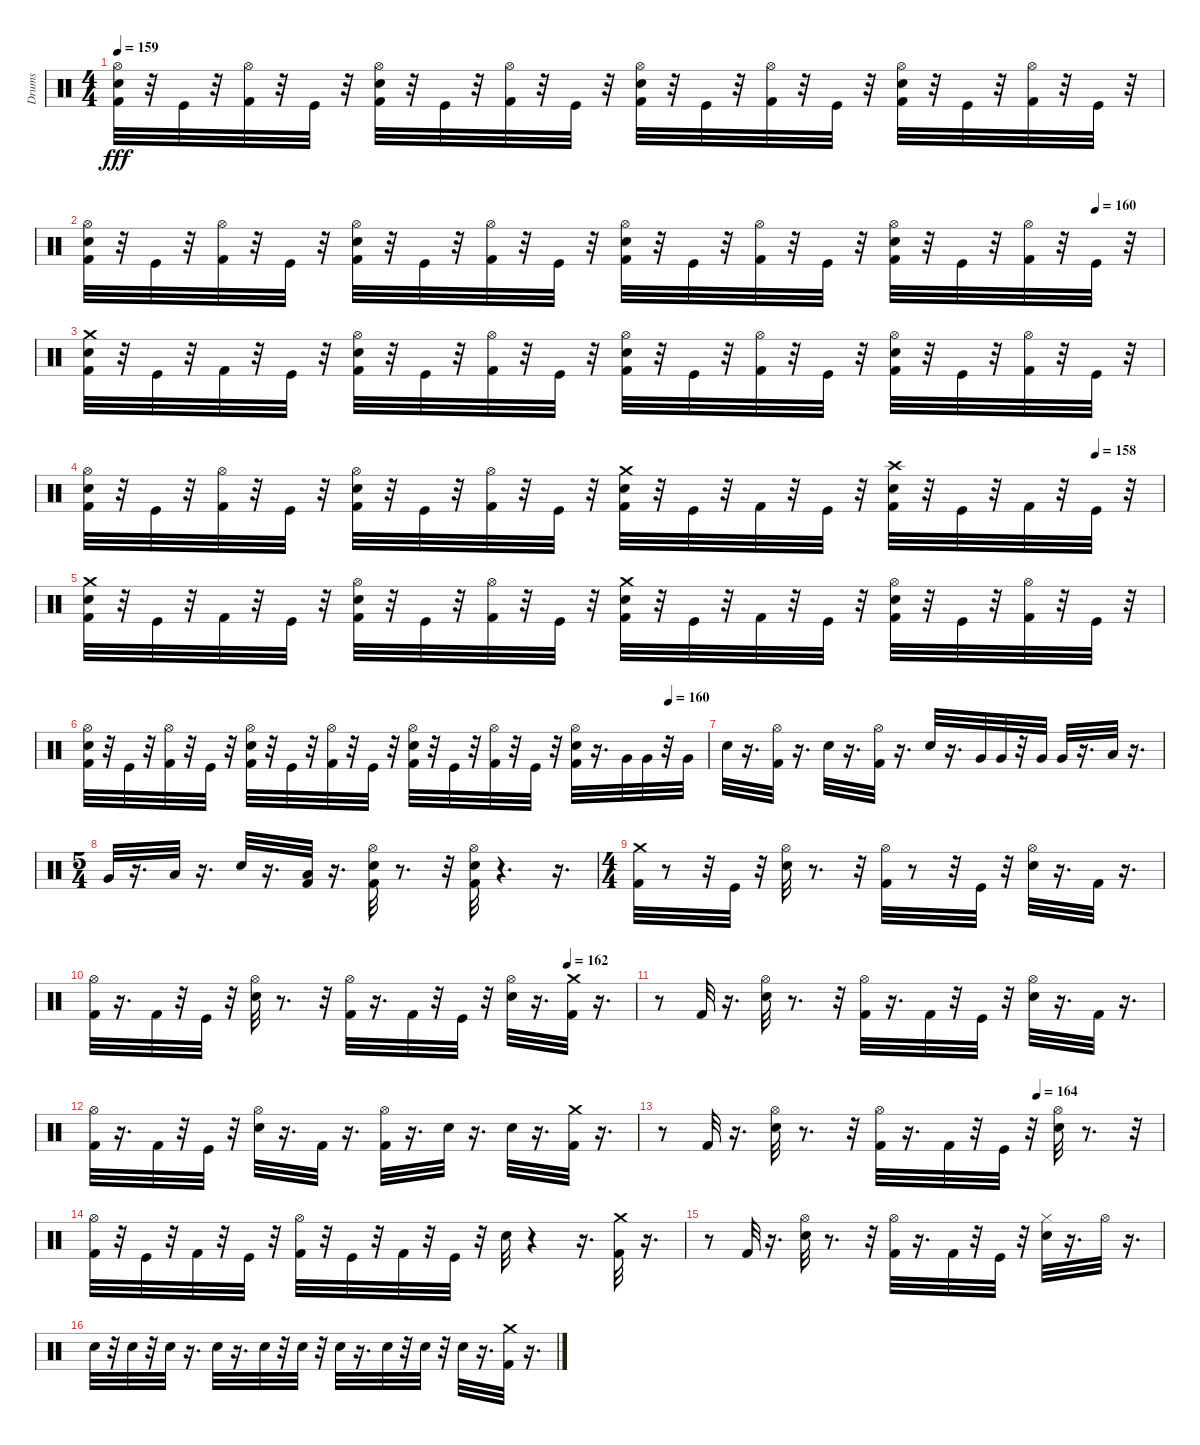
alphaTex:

\track ("Drums" "Drums") {instrument percussion}
\staff {score}
\articulation defaults
\ts (4 4)
\tempo 159
\clef neutral
\ks c
("Kick (hit) 2" "Snare (hit) 2" "Hi-Hat (open)").32{dy fff} r.32 "Kick (hit)".32 r.32 ("Kick (hit) 2" "Hi-Hat (open)").32 r.32 "Kick (hit)".32 r.32 ("Kick (hit) 2" "Snare (hit) 2" "Hi-Hat (open)").32 r.32 "Kick (hit)".32 r.32 ("Kick (hit) 2" "Hi-Hat (open)").32 r.32 "Kick (hit)".32 r.32 ("Kick (hit) 2" "Snare (hit) 2" "Hi-Hat (open)").32 r.32 "Kick (hit)".32 r.32 ("Kick (hit) 2" "Hi-Hat (open)").32 r.32 "Kick (hit)".32 r.32 ("Kick (hit) 2" "Snare (hit) 2" "Hi-Hat (open)").32 r.32 "Kick (hit)".32 r.32 ("Kick (hit) 2" "Hi-Hat (open)").32 r.32 "Kick (hit)".32 r.32 |
\tempo (160 0.9375)
("Kick (hit) 2" "Snare (hit) 2" "Hi-Hat (open)").32 r.32 "Kick (hit)".32 r.32 ("Kick (hit) 2" "Hi-Hat (open)").32 r.32 "Kick (hit)".32 r.32 ("Kick (hit) 2" "Snare (hit) 2" "Hi-Hat (open)").32 r.32 "Kick (hit)".32 r.32 ("Kick (hit) 2" "Hi-Hat (open)").32 r.32 "Kick (hit)".32 r.32 ("Kick (hit) 2" "Snare (hit) 2" "Hi-Hat (open)").32 r.32 "Kick (hit)".32 r.32 ("Kick (hit) 2" "Hi-Hat (open)").32 r.32 "Kick (hit)".32 r.32 ("Kick (hit) 2" "Snare (hit) 2" "Hi-Hat (open)").32 r.32 "Kick (hit)".32 r.32 ("Kick (hit) 2" "Hi-Hat (open)").32 r.32 "Kick (hit)".32 r.32 |
("Kick (hit) 2" "Snare (hit) 2" "Crash medium (hit)").32 r.32 "Kick (hit)".32 r.32 "Kick (hit) 2".32 r.32 "Kick (hit)".32 r.32 ("Kick (hit) 2" "Snare (hit) 2" "Hi-Hat (open)").32 r.32 "Kick (hit)".32 r.32 ("Kick (hit) 2" "Hi-Hat (open)").32 r.32 "Kick (hit)".32 r.32 ("Kick (hit) 2" "Snare (hit) 2" "Hi-Hat (open)").32 r.32 "Kick (hit)".32 r.32 ("Kick (hit) 2" "Hi-Hat (open)").32 r.32 "Kick (hit)".32 r.32 ("Kick (hit) 2" "Snare (hit) 2" "Hi-Hat (open)").32 r.32 "Kick (hit)".32 r.32 ("Kick (hit) 2" "Hi-Hat (open)").32 r.32 "Kick (hit)".32 r.32 |
\tempo (158 0.9375)
("Kick (hit) 2" "Snare (hit) 2" "Hi-Hat (open)").32 r.32 "Kick (hit)".32 r.32 ("Kick (hit) 2" "Hi-Hat (open)").32 r.32 "Kick (hit)".32 r.32 ("Kick (hit) 2" "Snare (hit) 2" "Hi-Hat (open)").32 r.32 "Kick (hit)".32 r.32 ("Kick (hit) 2" "Hi-Hat (open)").32 r.32 "Kick (hit)".32 r.32 ("Crash medium (hit)" "Kick (hit) 2" "Snare (hit) 2").32 r.32 "Kick (hit)".32 r.32 "Kick (hit) 2".32 r.32 "Kick (hit)".32 r.32 ("Crash high (hit)" "Kick (hit) 2" "Snare (hit) 2").32 r.32 "Kick (hit)".32 r.32 "Kick (hit) 2".32 r.32 "Kick (hit)".32 r.32 |
("Kick (hit) 2" "Snare (hit) 2" "Crash medium (hit)").32 r.32 "Kick (hit)".32 r.32 "Kick (hit) 2".32 r.32 "Kick (hit)".32 r.32 ("Kick (hit) 2" "Snare (hit) 2" "Hi-Hat (open)").32 r.32 "Kick (hit)".32 r.32 ("Kick (hit) 2" "Hi-Hat (open)").32 r.32 "Kick (hit)".32 r.32 ("Kick (hit) 2" "Snare (hit) 2" "Crash medium (hit)").32 r.32 "Kick (hit)".32 r.32 "Kick (hit) 2".32 r.32 "Kick (hit)".32 r.32 ("Kick (hit) 2" "Snare (hit) 2" "Hi-Hat (open)").32 r.32 "Kick (hit)".32 r.32 ("Kick (hit) 2" "Hi-Hat (open)").32 r.32 "Kick (hit)".32 r.32 |
\tempo (160 0.9375)
("Kick (hit) 2" "Snare (hit) 2" "Hi-Hat (open)").32 r.32 "Kick (hit)".32 r.32 ("Kick (hit) 2" "Hi-Hat (open)").32 r.32 "Kick (hit)".32 r.32 ("Kick (hit) 2" "Snare (hit) 2" "Hi-Hat (open)").32 r.32 "Kick (hit)".32 r.32 ("Kick (hit) 2" "Hi-Hat (open)").32 r.32 "Kick (hit)".32 r.32 ("Kick (hit) 2" "Snare (hit) 2" "Hi-Hat (open)").32 r.32 "Kick (hit)".32 r.32 ("Kick (hit) 2" "Hi-Hat (open)").32 r.32 "Kick (hit)".32 r.32 ("Kick (hit) 2" "Snare (hit) 2" "Hi-Hat (open)").32 r.16{d} "Very Low Tom (hit)".32 "Very Low Tom (hit)".32 r.32 "Very Low Tom (hit)".32 |
"Snare (hit) 2".32 r.16{d} ("Kick (hit) 2" "Hi-Hat (open)").32 r.16{d} "Snare (hit) 2".32 r.16{d} ("Kick (hit) 2" "Hi-Hat (open)").32 r.16{d} "Snare (hit) 2".32 r.16{d} "Very Low Tom (hit)".32 "Very Low Tom (hit)".32 r.32 "Very Low Tom (hit)".32 "Very Low Tom (hit)".32 r.16{d} "Low Floor Tom (hit)".32 r.16{d} |
\ts (5 4)
"Very Low Tom (hit)".32 r.16{d} "Low Floor Tom (hit)".32 r.16{d} "Snare (hit) 2".32 r.16{d} ("Kick (hit) 2" "Low Floor Tom (hit)").32 r.16{d} ("Snare (hit) 2" "Kick (hit) 2" "Hi-Hat (open)").32 r.8{d} r.32 ("Snare (hit) 2" "Kick (hit) 2" "Hi-Hat (open)").32 r.4{d} r.16{d} |
\ts (4 4)
("Kick (hit) 2" "Crash medium (hit)").32 r.8 r.32 "Kick (hit)".32 r.32 ("Snare (hit) 2" "Hi-Hat (open)").32 r.8{d} r.32 ("Kick (hit) 2" "Hi-Hat (open)").32 r.8 r.32 "Kick (hit)".32 r.32 ("Snare (hit) 2" "Hi-Hat (open)").32 r.16{d} "Kick (hit) 2".32 r.16{d} |
\tempo (162 0.875)
("Kick (hit) 2" "Hi-Hat (open)").32 r.16{d} "Kick (hit) 2".32 r.32 "Kick (hit)".32 r.32 ("Snare (hit) 2" "Hi-Hat (open)").32 r.8{d} r.32 ("Kick (hit) 2" "Hi-Hat (open)").32 r.16{d} "Kick (hit) 2".32 r.32 "Kick (hit)".32 r.32 ("Snare (hit) 2" "Hi-Hat (open)").32 r.16{d} ("Kick (hit) 2" "Crash medium (hit)").32 r.16{d} |
r.8 "Kick (hit) 2".32 r.16{d} ("Snare (hit) 2" "Hi-Hat (open)").32 r.8{d} r.32 ("Kick (hit) 2" "Hi-Hat (open)").32 r.16{d} "Kick (hit) 2".32 r.32 "Kick (hit)".32 r.32 ("Snare (hit) 2" "Hi-Hat (open)").32 r.16{d} "Kick (hit) 2".32 r.16{d} |
("Kick (hit) 2" "Hi-Hat (open)").32 r.16{d} "Kick (hit) 2".32 r.32 "Kick (hit)".32 r.32 ("Snare (hit) 2" "Hi-Hat (open)").32 r.16{d} "Kick (hit) 2".32 r.16{d} ("Kick (hit) 2" "Hi-Hat (open)").32 r.16{d} "Snare (hit) 2".32 r.16{d} "Snare (hit) 2".32 r.16{d} ("Kick (hit) 2" "Crash medium (hit)").32 r.16{d} |
\tempo (164 0.75)
r.8 "Kick (hit) 2".32 r.16{d} ("Snare (hit) 2" "Hi-Hat (open)").32 r.8{d} r.32 ("Kick (hit) 2" "Hi-Hat (open)").32 r.16{d} "Kick (hit) 2".32 r.32 "Kick (hit)".32 r.32 ("Snare (hit) 2" "Hi-Hat (open)").32 r.8{d} r.32 |
("Kick (hit) 2" "Hi-Hat (open)").32 r.32 "Kick (hit)".32 r.32 "Kick (hit) 2".32 r.32 "Kick (hit)".32 r.32 ("Kick (hit) 2" "Hi-Hat (open)").32 r.32 "Kick (hit)".32 r.32 "Kick (hit) 2".32 r.32 "Kick (hit)".32 r.32 "Snare (hit) 2".32 r.4 r.16{d} ("Crash medium (hit)" "Kick (hit) 2").32 r.16{d} |
r.8 "Kick (hit) 2".32 r.16{d} ("Snare (hit) 2" "Hi-Hat (open)").32 r.8{d} r.32 ("Kick (hit) 2" "Hi-Hat (open)").32 r.16{d} "Kick (hit) 2".32 r.32 "Kick (hit)".32 r.32 ("Snare (hit) 2" "Hi-Hat (closed)").32 r.16{d} "Hi-Hat (open)".32 r.16{d} |
"Snare (hit) 2".32 r.32 "Snare (hit) 2".32 r.32 "Snare (hit) 2".32 r.16{d} "Snare (hit) 2".32 r.16{d} "Snare (hit) 2".32 r.32 "Snare (hit) 2".32 r.32 "Snare (hit) 2".32 r.16{d} "Snare (hit) 2".32 r.32 "Snare (hit) 2".32 r.32 "Snare (hit) 2".32 r.16{d} ("Crash medium (hit)" "Kick (hit) 2").32 r.16{d}
